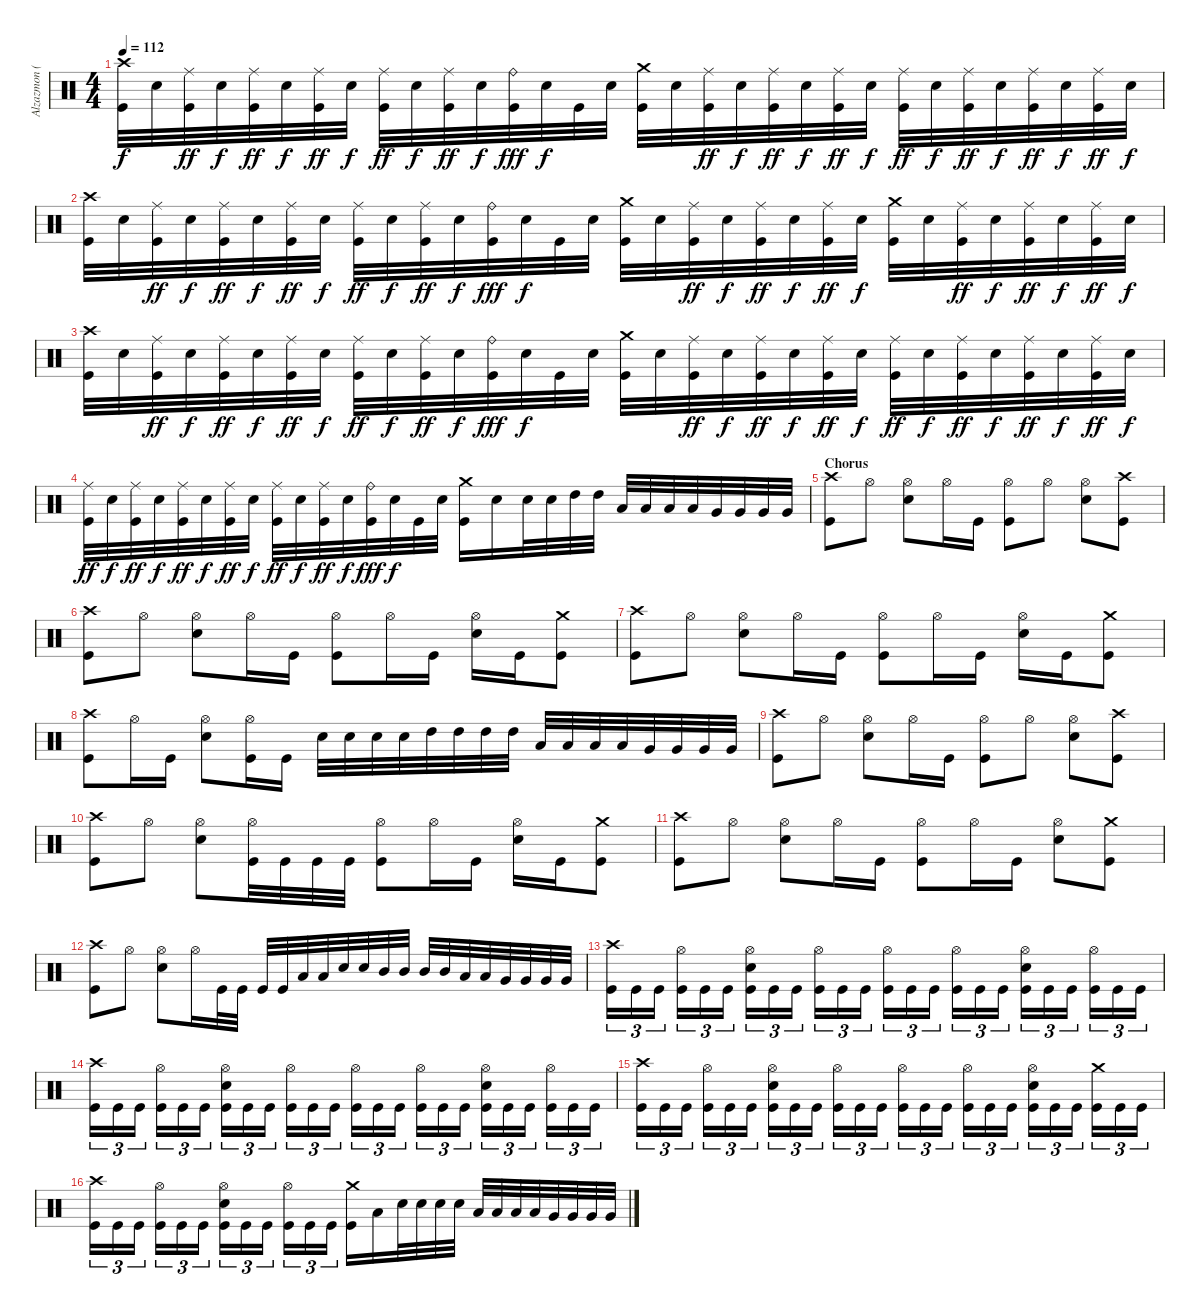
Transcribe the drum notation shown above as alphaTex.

\track ("Alzazmon (Drums)" "Alzazmon (") {instrument percussion}
\staff {score}
\articulation defaults
\ts (4 4)
\tempo 112
\clef neutral
\ks c
("Crash high (hit)" "Kick (hit)").32{dy f} "Electric Snare (hit)".32 ("Ride (middle)" "Kick (hit)").32{dy ff} "Electric Snare (hit)".32{dy f} ("Ride (middle)" "Kick (hit)").32{dy ff} "Electric Snare (hit)".32{dy f} ("Ride (middle)" "Kick (hit)").32{dy ff} "Electric Snare (hit)".32{dy f} ("Ride (middle)" "Kick (hit)").32{dy ff} "Electric Snare (hit)".32{dy f} ("Ride (middle)" "Kick (hit)").32{dy ff} "Electric Snare (hit)".32{dy f} ("Ride (bell)" "Kick (hit)").32{dy fff} "Electric Snare (hit)".32{dy f} "Kick (hit)".32 "Electric Snare (hit)".32 ("Crash medium (hit)" "Kick (hit)").32 "Electric Snare (hit)".32 ("Ride (middle)" "Kick (hit)").32{dy ff} "Electric Snare (hit)".32{dy f} ("Ride (middle)" "Kick (hit)").32{dy ff} "Electric Snare (hit)".32{dy f} ("Ride (middle)" "Kick (hit)").32{dy ff} "Electric Snare (hit)".32{dy f} ("Ride (middle)" "Kick (hit)").32{dy ff} "Electric Snare (hit)".32{dy f} ("Ride (middle)" "Kick (hit)").32{dy ff} "Electric Snare (hit)".32{dy f} ("Ride (middle)" "Kick (hit)").32{dy ff} "Electric Snare (hit)".32{dy f} ("Ride (middle)" "Kick (hit)").32{dy ff} "Electric Snare (hit)".32{dy f} |
("Crash high (hit)" "Kick (hit)").32 "Electric Snare (hit)".32 ("Ride (middle)" "Kick (hit)").32{dy ff} "Electric Snare (hit)".32{dy f} ("Ride (middle)" "Kick (hit)").32{dy ff} "Electric Snare (hit)".32{dy f} ("Ride (middle)" "Kick (hit)").32{dy ff} "Electric Snare (hit)".32{dy f} ("Ride (middle)" "Kick (hit)").32{dy ff} "Electric Snare (hit)".32{dy f} ("Ride (middle)" "Kick (hit)").32{dy ff} "Electric Snare (hit)".32{dy f} ("Ride (bell)" "Kick (hit)").32{dy fff} "Electric Snare (hit)".32{dy f} "Kick (hit)".32 "Electric Snare (hit)".32 ("Crash medium (hit)" "Kick (hit)").32 "Electric Snare (hit)".32 ("Ride (middle)" "Kick (hit)").32{dy ff} "Electric Snare (hit)".32{dy f} ("Ride (middle)" "Kick (hit)").32{dy ff} "Electric Snare (hit)".32{dy f} ("Ride (middle)" "Kick (hit)").32{dy ff} "Electric Snare (hit)".32{dy f} ("Crash medium (hit)" "Kick (hit)").32 "Electric Snare (hit)".32 ("Ride (middle)" "Kick (hit)").32{dy ff} "Electric Snare (hit)".32{dy f} ("Ride (middle)" "Kick (hit)").32{dy ff} "Electric Snare (hit)".32{dy f} ("Ride (middle)" "Kick (hit)").32{dy ff} "Electric Snare (hit)".32{dy f} |
("Crash high (hit)" "Kick (hit)").32 "Electric Snare (hit)".32 ("Ride (middle)" "Kick (hit)").32{dy ff} "Electric Snare (hit)".32{dy f} ("Ride (middle)" "Kick (hit)").32{dy ff} "Electric Snare (hit)".32{dy f} ("Ride (middle)" "Kick (hit)").32{dy ff} "Electric Snare (hit)".32{dy f} ("Ride (middle)" "Kick (hit)").32{dy ff} "Electric Snare (hit)".32{dy f} ("Ride (middle)" "Kick (hit)").32{dy ff} "Electric Snare (hit)".32{dy f} ("Ride (bell)" "Kick (hit)").32{dy fff} "Electric Snare (hit)".32{dy f} "Kick (hit)".32 "Electric Snare (hit)".32 ("Crash medium (hit)" "Kick (hit)").32 "Electric Snare (hit)".32 ("Ride (middle)" "Kick (hit)").32{dy ff} "Electric Snare (hit)".32{dy f} ("Ride (middle)" "Kick (hit)").32{dy ff} "Electric Snare (hit)".32{dy f} ("Ride (middle)" "Kick (hit)").32{dy ff} "Electric Snare (hit)".32{dy f} ("Ride (middle)" "Kick (hit)").32{dy ff} "Electric Snare (hit)".32{dy f} ("Ride (middle)" "Kick (hit)").32{dy ff} "Electric Snare (hit)".32{dy f} ("Ride (middle)" "Kick (hit)").32{dy ff} "Electric Snare (hit)".32{dy f} ("Ride (middle)" "Kick (hit)").32{dy ff} "Electric Snare (hit)".32{dy f} |
("Ride (middle)" "Kick (hit)").32{dy ff} "Electric Snare (hit)".32{dy f} ("Ride (middle)" "Kick (hit)").32{dy ff} "Electric Snare (hit)".32{dy f} ("Ride (middle)" "Kick (hit)").32{dy ff} "Electric Snare (hit)".32{dy f} ("Ride (middle)" "Kick (hit)").32{dy ff} "Electric Snare (hit)".32{dy f} ("Ride (middle)" "Kick (hit)").32{dy ff} "Electric Snare (hit)".32{dy f} ("Ride (middle)" "Kick (hit)").32{dy ff} "Electric Snare (hit)".32{dy f} ("Ride (bell)" "Kick (hit)").32{dy fff} "Electric Snare (hit)".32{dy f} "Kick (hit)".32 "Electric Snare (hit)".32 ("Crash medium (hit)" "Kick (hit)").16 "Electric Snare (hit)".16 "Electric Snare (hit)".32 "Electric Snare (hit)".32 "High Tom (hit)".32 "High Tom (hit)".32 "Low Tom (hit)".32 "Low Tom (hit)".32 "Low Tom (hit)".32 "Low Tom (hit)".32 "Very Low Tom (hit)".32 "Very Low Tom (hit)".32 "Very Low Tom (hit)".32 "Very Low Tom (hit)".32 |
\section ("" "Chorus")
("Crash high (hit)" "Kick (hit)").8 "Hi-Hat (open)".8 ("Hi-Hat (open)" "Electric Snare (hit)").8 "Hi-Hat (open)".16 "Kick (hit)".16 ("Hi-Hat (open)" "Kick (hit)").8 "Hi-Hat (open)".8 ("Hi-Hat (open)" "Electric Snare (hit)").8 ("Crash high (hit)" "Kick (hit)").8 |
("Crash high (hit)" "Kick (hit)").8 "Hi-Hat (open)".8 ("Hi-Hat (open)" "Electric Snare (hit)").8 "Hi-Hat (open)".16 "Kick (hit)".16 ("Hi-Hat (open)" "Kick (hit)").8 "Hi-Hat (open)".16 "Kick (hit)".16 ("Hi-Hat (open)" "Electric Snare (hit)").16 "Kick (hit)".16 ("Crash medium (hit)" "Kick (hit)").8 |
("Crash high (hit)" "Kick (hit)").8 "Hi-Hat (open)".8 ("Hi-Hat (open)" "Electric Snare (hit)").8 "Hi-Hat (open)".16 "Kick (hit)".16 ("Hi-Hat (open)" "Kick (hit)").8 "Hi-Hat (open)".16 "Kick (hit)".16 ("Hi-Hat (open)" "Electric Snare (hit)").16 "Kick (hit)".16 ("Crash medium (hit)" "Kick (hit)").8 |
("Crash high (hit)" "Kick (hit)").8 "Hi-Hat (open)".16 "Kick (hit)".16 ("Hi-Hat (open)" "Electric Snare (hit)").8 ("Hi-Hat (open)" "Kick (hit)").16 "Kick (hit)".16 "Electric Snare (hit)".32 "Electric Snare (hit)".32 "Electric Snare (hit)".32 "Electric Snare (hit)".32 "High Tom (hit)".32 "High Tom (hit)".32 "High Tom (hit)".32 "High Tom (hit)".32 "Low Tom (hit)".32 "Low Tom (hit)".32 "Low Tom (hit)".32 "Low Tom (hit)".32 "Very Low Tom (hit)".32 "Very Low Tom (hit)".32 "Very Low Tom (hit)".32 "Very Low Tom (hit)".32 |
("Crash high (hit)" "Kick (hit)").8 "Hi-Hat (open)".8 ("Hi-Hat (open)" "Electric Snare (hit)").8 "Hi-Hat (open)".16 "Kick (hit)".16 ("Hi-Hat (open)" "Kick (hit)").8 "Hi-Hat (open)".8 ("Hi-Hat (open)" "Electric Snare (hit)").8 ("Crash high (hit)" "Kick (hit)").8 |
("Crash high (hit)" "Kick (hit)").8 "Hi-Hat (open)".8 ("Hi-Hat (open)" "Electric Snare (hit)").8 ("Hi-Hat (open)" "Kick (hit)").32 "Kick (hit)".32 "Kick (hit)".32 "Kick (hit)".32 ("Hi-Hat (open)" "Kick (hit)").8 "Hi-Hat (open)".16 "Kick (hit)".16 ("Hi-Hat (open)" "Electric Snare (hit)").16 "Kick (hit)".16 ("Crash medium (hit)" "Kick (hit)").8 |
("Crash high (hit)" "Kick (hit)").8 "Hi-Hat (open)".8 ("Hi-Hat (open)" "Electric Snare (hit)").8 "Hi-Hat (open)".16 "Kick (hit)".16 ("Hi-Hat (open)" "Kick (hit)").8 "Hi-Hat (open)".16 "Kick (hit)".16 ("Hi-Hat (open)" "Electric Snare (hit)").8 ("Crash medium (hit)" "Kick (hit)").8 |
("Crash high (hit)" "Kick (hit)").8 "Hi-Hat (open)".8 ("Hi-Hat (open)" "Electric Snare (hit)").8 "Hi-Hat (open)".16 "Kick (hit)".32 "Kick (hit)".32 "Kick (hit)".32 "Kick (hit)".32 "Low Tom (hit)".32 "Low Tom (hit)".32 "Electric Snare (hit)".32 "Electric Snare (hit)".32 "Mid Tom (hit)".32 "Mid Tom (hit)".32 "Mid Tom (hit)".32 "Mid Tom (hit)".32 "Low Tom (hit)".32 "Low Tom (hit)".32 "Very Low Tom (hit)".32 "Very Low Tom (hit)".32 "Very Low Tom (hit)".32 "Very Low Tom (hit)".32 |
("Crash high (hit)" "Kick (hit)").16{tu (3 2)} "Kick (hit)".16{tu (3 2)} "Kick (hit)".16{tu (3 2)} ("Hi-Hat (open)" "Kick (hit)").16{tu (3 2)} "Kick (hit)".16{tu (3 2)} "Kick (hit)".16{tu (3 2)} ("Hi-Hat (open)" "Electric Snare (hit)" "Kick (hit)").16{tu (3 2)} "Kick (hit)".16{tu (3 2)} "Kick (hit)".16{tu (3 2)} ("Hi-Hat (open)" "Kick (hit)").16{tu (3 2)} "Kick (hit)".16{tu (3 2)} "Kick (hit)".16{tu (3 2)} ("Hi-Hat (open)" "Kick (hit)").16{tu (3 2)} "Kick (hit)".16{tu (3 2)} "Kick (hit)".16{tu (3 2)} ("Hi-Hat (open)" "Kick (hit)").16{tu (3 2)} "Kick (hit)".16{tu (3 2)} "Kick (hit)".16{tu (3 2)} ("Hi-Hat (open)" "Electric Snare (hit)" "Kick (hit)").16{tu (3 2)} "Kick (hit)".16{tu (3 2)} "Kick (hit)".16{tu (3 2)} ("Hi-Hat (open)" "Kick (hit)").16{tu (3 2)} "Kick (hit)".16{tu (3 2)} "Kick (hit)".16{tu (3 2)} |
("Crash high (hit)" "Kick (hit)").16{tu (3 2)} "Kick (hit)".16{tu (3 2)} "Kick (hit)".16{tu (3 2)} ("Hi-Hat (open)" "Kick (hit)").16{tu (3 2)} "Kick (hit)".16{tu (3 2)} "Kick (hit)".16{tu (3 2)} ("Hi-Hat (open)" "Electric Snare (hit)" "Kick (hit)").16{tu (3 2)} "Kick (hit)".16{tu (3 2)} "Kick (hit)".16{tu (3 2)} ("Hi-Hat (open)" "Kick (hit)").16{tu (3 2)} "Kick (hit)".16{tu (3 2)} "Kick (hit)".16{tu (3 2)} ("Hi-Hat (open)" "Kick (hit)").16{tu (3 2)} "Kick (hit)".16{tu (3 2)} "Kick (hit)".16{tu (3 2)} ("Hi-Hat (open)" "Kick (hit)").16{tu (3 2)} "Kick (hit)".16{tu (3 2)} "Kick (hit)".16{tu (3 2)} ("Hi-Hat (open)" "Electric Snare (hit)" "Kick (hit)").16{tu (3 2)} "Kick (hit)".16{tu (3 2)} "Kick (hit)".16{tu (3 2)} ("Hi-Hat (open)" "Kick (hit)").16{tu (3 2)} "Kick (hit)".16{tu (3 2)} "Kick (hit)".16{tu (3 2)} |
("Crash high (hit)" "Kick (hit)").16{tu (3 2)} "Kick (hit)".16{tu (3 2)} "Kick (hit)".16{tu (3 2)} ("Hi-Hat (open)" "Kick (hit)").16{tu (3 2)} "Kick (hit)".16{tu (3 2)} "Kick (hit)".16{tu (3 2)} ("Hi-Hat (open)" "Electric Snare (hit)" "Kick (hit)").16{tu (3 2)} "Kick (hit)".16{tu (3 2)} "Kick (hit)".16{tu (3 2)} ("Hi-Hat (open)" "Kick (hit)").16{tu (3 2)} "Kick (hit)".16{tu (3 2)} "Kick (hit)".16{tu (3 2)} ("Hi-Hat (open)" "Kick (hit)").16{tu (3 2)} "Kick (hit)".16{tu (3 2)} "Kick (hit)".16{tu (3 2)} ("Hi-Hat (open)" "Kick (hit)").16{tu (3 2)} "Kick (hit)".16{tu (3 2)} "Kick (hit)".16{tu (3 2)} ("Hi-Hat (open)" "Electric Snare (hit)" "Kick (hit)").16{tu (3 2)} "Kick (hit)".16{tu (3 2)} "Kick (hit)".16{tu (3 2)} ("Crash medium (hit)" "Kick (hit)").16{tu (3 2)} "Kick (hit)".16{tu (3 2)} "Kick (hit)".16{tu (3 2)} |
("Crash high (hit)" "Kick (hit)").16{tu (3 2)} "Kick (hit)".16{tu (3 2)} "Kick (hit)".16{tu (3 2)} ("Hi-Hat (open)" "Kick (hit)").16{tu (3 2)} "Kick (hit)".16{tu (3 2)} "Kick (hit)".16{tu (3 2)} ("Hi-Hat (open)" "Electric Snare (hit)" "Kick (hit)").16{tu (3 2)} "Kick (hit)".16{tu (3 2)} "Kick (hit)".16{tu (3 2)} ("Hi-Hat (open)" "Kick (hit)").16{tu (3 2)} "Kick (hit)".16{tu (3 2)} "Kick (hit)".16{tu (3 2)} ("Crash medium (hit)" "Kick (hit)").16 "Low Tom (hit)".16 "Electric Snare (hit)".32 "Electric Snare (hit)".32 "Electric Snare (hit)".32 "Electric Snare (hit)".32 "Low Tom (hit)".32 "Low Tom (hit)".32 "Low Tom (hit)".32 "Low Tom (hit)".32 "Very Low Tom (hit)".32 "Very Low Tom (hit)".32 "Very Low Tom (hit)".32 "Very Low Tom (hit)".32
